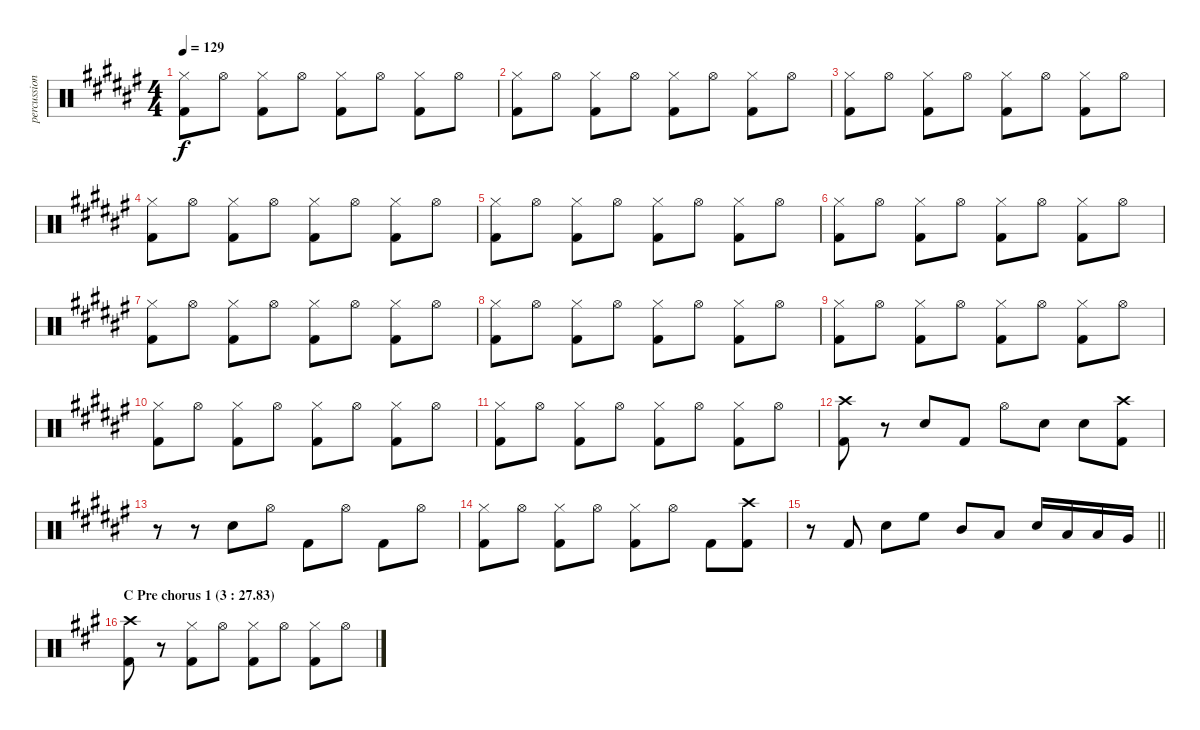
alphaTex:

\track ("percussion" "percussion") {instrument percussion}
\staff {score}
\articulation defaults
\ts (4 4)
\tempo 129
\clef neutral
\ks f#
("Hi-Hat (closed)" "Kick (hit) 2").8{dy f} "Hi-Hat (open)".8 ("Hi-Hat (closed)" "Kick (hit) 2").8 "Hi-Hat (open)".8 ("Hi-Hat (closed)" "Kick (hit) 2").8 "Hi-Hat (open)".8 ("Hi-Hat (closed)" "Kick (hit) 2").8 "Hi-Hat (open)".8 |
("Hi-Hat (closed)" "Kick (hit) 2").8 "Hi-Hat (open)".8 ("Hi-Hat (closed)" "Kick (hit) 2").8 "Hi-Hat (open)".8 ("Hi-Hat (closed)" "Kick (hit) 2").8 "Hi-Hat (open)".8 ("Hi-Hat (closed)" "Kick (hit) 2").8 "Hi-Hat (open)".8 |
("Hi-Hat (closed)" "Kick (hit) 2").8 "Hi-Hat (open)".8 ("Hi-Hat (closed)" "Kick (hit) 2").8 "Hi-Hat (open)".8 ("Hi-Hat (closed)" "Kick (hit) 2").8 "Hi-Hat (open)".8 ("Hi-Hat (closed)" "Kick (hit) 2").8 "Hi-Hat (open)".8 |
("Hi-Hat (closed)" "Kick (hit) 2").8 "Hi-Hat (open)".8 ("Hi-Hat (closed)" "Kick (hit) 2").8 "Hi-Hat (open)".8 ("Hi-Hat (closed)" "Kick (hit) 2").8 "Hi-Hat (open)".8 ("Hi-Hat (closed)" "Kick (hit) 2").8 "Hi-Hat (open)".8 |
("Hi-Hat (closed)" "Kick (hit) 2").8 "Hi-Hat (open)".8 ("Hi-Hat (closed)" "Kick (hit) 2").8 "Hi-Hat (open)".8 ("Hi-Hat (closed)" "Kick (hit) 2").8 "Hi-Hat (open)".8 ("Hi-Hat (closed)" "Kick (hit) 2").8 "Hi-Hat (open)".8 |
("Hi-Hat (closed)" "Kick (hit) 2").8 "Hi-Hat (open)".8 ("Hi-Hat (closed)" "Kick (hit) 2").8 "Hi-Hat (open)".8 ("Hi-Hat (closed)" "Kick (hit) 2").8 "Hi-Hat (open)".8 ("Hi-Hat (closed)" "Kick (hit) 2").8 "Hi-Hat (open)".8 |
("Hi-Hat (closed)" "Kick (hit) 2").8 "Hi-Hat (open)".8 ("Hi-Hat (closed)" "Kick (hit) 2").8 "Hi-Hat (open)".8 ("Hi-Hat (closed)" "Kick (hit) 2").8 "Hi-Hat (open)".8 ("Hi-Hat (closed)" "Kick (hit) 2").8 "Hi-Hat (open)".8 |
("Hi-Hat (closed)" "Kick (hit) 2").8 "Hi-Hat (open)".8 ("Hi-Hat (closed)" "Kick (hit) 2").8 "Hi-Hat (open)".8 ("Hi-Hat (closed)" "Kick (hit) 2").8 "Hi-Hat (open)".8 ("Hi-Hat (closed)" "Kick (hit) 2").8 "Hi-Hat (open)".8 |
("Hi-Hat (closed)" "Kick (hit) 2").8 "Hi-Hat (open)".8 ("Hi-Hat (closed)" "Kick (hit) 2").8 "Hi-Hat (open)".8 ("Hi-Hat (closed)" "Kick (hit) 2").8 "Hi-Hat (open)".8 ("Hi-Hat (closed)" "Kick (hit) 2").8 "Hi-Hat (open)".8 |
("Hi-Hat (closed)" "Kick (hit) 2").8 "Hi-Hat (open)".8 ("Hi-Hat (closed)" "Kick (hit) 2").8 "Hi-Hat (open)".8 ("Hi-Hat (closed)" "Kick (hit) 2").8 "Hi-Hat (open)".8 ("Hi-Hat (closed)" "Kick (hit) 2").8 "Hi-Hat (open)".8 |
("Hi-Hat (closed)" "Kick (hit) 2").8 "Hi-Hat (open)".8 ("Hi-Hat (closed)" "Kick (hit) 2").8 "Hi-Hat (open)".8 ("Hi-Hat (closed)" "Kick (hit) 2").8 "Hi-Hat (open)".8 ("Hi-Hat (closed)" "Kick (hit) 2").8 "Hi-Hat (open)".8 |
("Crash high (hit)" "Kick (hit) 2").8 r.8 "Snare (hit) 2".8 "Kick (hit) 2".8 "Hi-Hat (open)".8 "Snare (hit) 2".8 "Snare (hit) 2".8 ("Crash high (hit)" "Kick (hit) 2").8 |
r.8 r.8 "Snare (hit) 2".8 "Hi-Hat (open)".8 "Kick (hit) 2".8 "Hi-Hat (open)".8 "Kick (hit) 2".8 "Hi-Hat (open)".8 |
("Hi-Hat (closed)" "Kick (hit) 2").8 "Hi-Hat (open)".8 ("Hi-Hat (closed)" "Kick (hit) 2").8 "Hi-Hat (open)".8 ("Hi-Hat (closed)" "Kick (hit) 2").8 "Hi-Hat (open)".8 "Kick (hit) 2".8 ("Crash high (hit)" "Kick (hit) 2").8 |
\barLineRight lightlight
r.8 "Kick (hit) 2".8 "Snare (hit) 2".8 "High Floor Tom (hit)".8 "Mid Tom (hit)".8 "Low Tom (hit)".8 "Snare (hit) 2".16 "Low Tom (hit)".16 "Low Tom (hit)".16 "Very Low Tom (hit)".16 |
\section ("" "C Pre chorus 1 (3 : 27.83)")
\ks a
("Crash high (hit)" "Kick (hit) 2").8 r.8 ("Hi-Hat (closed)" "Kick (hit) 2").8 "Hi-Hat (open)".8 ("Hi-Hat (closed)" "Kick (hit) 2").8 "Hi-Hat (open)".8 ("Hi-Hat (closed)" "Kick (hit) 2").8 "Hi-Hat (open)".8
